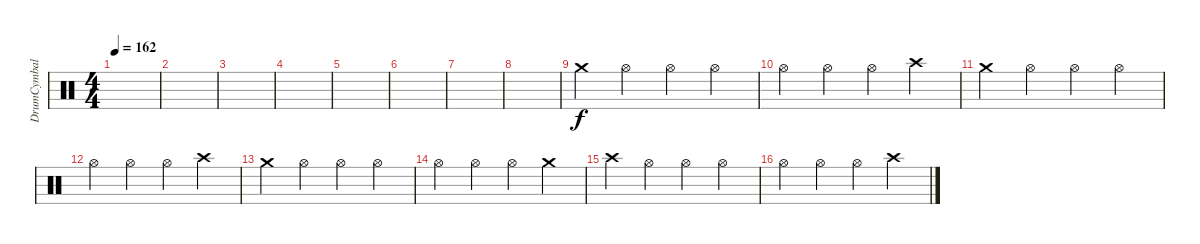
\track ("DrumCymbal" "DrumCymbal") {instrument percussion}
\staff {score}
\articulation defaults
\ts (4 4)
\tempo 162
\clef neutral
\ks c
|
|
|
|
|
|
|
|
"Crash medium (hit)".4 "Hi-Hat (open)".4 "Hi-Hat (open)".4 "Hi-Hat (open)".4 |
"Hi-Hat (open)".4 "Hi-Hat (open)".4 "Hi-Hat (open)".4 "Crash high (hit)".4 |
"Crash medium (hit)".4 "Hi-Hat (open)".4 "Hi-Hat (open)".4 "Hi-Hat (open)".4 |
"Hi-Hat (open)".4 "Hi-Hat (open)".4 "Hi-Hat (open)".4 "Crash high (hit)".4 |
"Crash medium (hit)".4 "Hi-Hat (open)".4 "Hi-Hat (open)".4 "Hi-Hat (open)".4 |
"Hi-Hat (open)".4 "Hi-Hat (open)".4 "Hi-Hat (open)".4 "Crash medium (hit)".4 |
"Crash high (hit)".4 "Hi-Hat (open)".4 "Hi-Hat (open)".4 "Hi-Hat (open)".4 |
"Hi-Hat (open)".4 "Hi-Hat (open)".4 "Hi-Hat (open)".4 "Crash high (hit)".4
